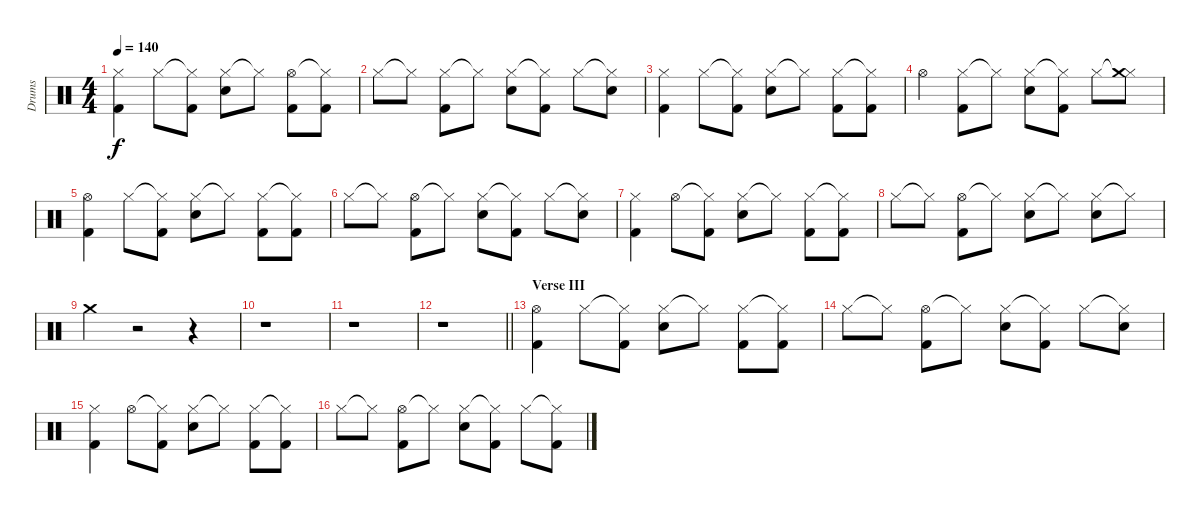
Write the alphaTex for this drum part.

\track ("Drums" "Drums") {instrument percussion}
\staff {score}
\articulation defaults
\ts (4 4)
\tempo 140
\clef neutral
\ks c
("Hi-Hat (closed)" "Kick (hit) 2").4{dy f} "Hi-Hat (closed)".8 ("Hi-Hat (closed)"{t} "Kick (hit) 2").8 ("Hi-Hat (closed)" "Snare (hit) 2").8 "Hi-Hat (closed)"{t}.8 ("Hi-Hat (open)" "Kick (hit) 2").8 ("Hi-Hat (closed)"{t} "Kick (hit) 2").8 |
"Hi-Hat (closed)".8 "Hi-Hat (closed)"{t}.8 ("Hi-Hat (closed)" "Kick (hit) 2").8 "Hi-Hat (closed)"{t}.8 ("Hi-Hat (closed)" "Snare (hit) 2").8 ("Hi-Hat (closed)"{t} "Kick (hit) 2").8 "Hi-Hat (closed)".8 ("Hi-Hat (closed)"{t} "Snare (hit) 2").8 |
("Hi-Hat (closed)" "Kick (hit) 2").4 "Hi-Hat (closed)".8 ("Hi-Hat (closed)"{t} "Kick (hit) 2").8 ("Hi-Hat (closed)" "Snare (hit) 2").8 "Hi-Hat (closed)"{t}.8 ("Hi-Hat (closed)" "Kick (hit) 2").8 ("Hi-Hat (closed)"{t} "Kick (hit) 2").8 |
"Hi-Hat (open)".4 ("Hi-Hat (closed)" "Kick (hit) 2").8 "Hi-Hat (closed)"{t}.8 ("Hi-Hat (closed)" "Snare (hit) 2").8 ("Hi-Hat (closed)"{t} "Kick (hit) 2").8 "Hi-Hat (closed)".8 ("Hi-Hat (closed)"{t} "Crash medium (hit)").8 |
("Hi-Hat (open)" "Kick (hit) 2").4 "Hi-Hat (closed)".8 ("Hi-Hat (closed)"{t} "Kick (hit) 2").8 ("Hi-Hat (closed)" "Snare (hit) 2").8 "Hi-Hat (closed)"{t}.8 ("Hi-Hat (closed)" "Kick (hit) 2").8 ("Hi-Hat (closed)"{t} "Kick (hit) 2").8 |
"Hi-Hat (closed)".8 "Hi-Hat (closed)"{t}.8 ("Hi-Hat (open)" "Kick (hit) 2").8 "Hi-Hat (closed)"{t}.8 ("Hi-Hat (closed)" "Snare (hit) 2").8 ("Hi-Hat (closed)"{t} "Kick (hit) 2").8 "Hi-Hat (closed)".8 ("Hi-Hat (closed)"{t} "Snare (hit) 2").8 |
("Hi-Hat (closed)" "Kick (hit) 2").4 "Hi-Hat (open)".8 ("Hi-Hat (closed)"{t} "Kick (hit) 2").8 ("Hi-Hat (closed)" "Snare (hit) 2").8 "Hi-Hat (closed)"{t}.8 ("Hi-Hat (closed)" "Kick (hit) 2").8 ("Hi-Hat (closed)"{t} "Kick (hit) 2").8 |
"Hi-Hat (closed)".8 "Hi-Hat (closed)"{t}.8 ("Hi-Hat (open)" "Kick (hit) 2").8 "Hi-Hat (closed)"{t}.8 ("Hi-Hat (closed)" "Snare (hit) 2").8 "Hi-Hat (closed)"{t}.8 ("Hi-Hat (closed)" "Snare (hit) 2").8 "Hi-Hat (closed)"{t}.8 |
"Crash medium (hit)".4 r.2 r.4 |
r.1 |
r.1 |
\barLineRight lightlight
r.1 |
\section ("" "Verse III")
("Hi-Hat (open)" "Kick (hit) 2").4 "Hi-Hat (closed)".8 ("Hi-Hat (closed)"{t} "Kick (hit) 2").8 ("Hi-Hat (closed)" "Snare (hit) 2").8 "Hi-Hat (closed)"{t}.8 ("Hi-Hat (closed)" "Kick (hit) 2").8 ("Hi-Hat (closed)"{t} "Kick (hit) 2").8 |
"Hi-Hat (closed)".8 "Hi-Hat (closed)"{t}.8 ("Hi-Hat (open)" "Kick (hit) 2").8 "Hi-Hat (closed)"{t}.8 ("Hi-Hat (closed)" "Snare (hit) 2").8 ("Hi-Hat (closed)"{t} "Kick (hit) 2").8 "Hi-Hat (closed)".8 ("Hi-Hat (closed)"{t} "Snare (hit) 2").8 |
("Hi-Hat (closed)" "Kick (hit) 2").4 "Hi-Hat (open)".8 ("Hi-Hat (closed)"{t} "Kick (hit) 2").8 ("Hi-Hat (closed)" "Snare (hit) 2").8 "Hi-Hat (closed)"{t}.8 ("Hi-Hat (closed)" "Kick (hit) 2").8 ("Hi-Hat (closed)"{t} "Kick (hit) 2").8 |
"Hi-Hat (closed)".8 "Hi-Hat (closed)"{t}.8 ("Hi-Hat (open)" "Kick (hit) 2").8 "Hi-Hat (closed)"{t}.8 ("Hi-Hat (closed)" "Snare (hit) 2").8 ("Hi-Hat (closed)"{t} "Kick (hit) 2").8 "Hi-Hat (closed)".8 ("Hi-Hat (closed)"{t} "Kick (hit) 2").8
